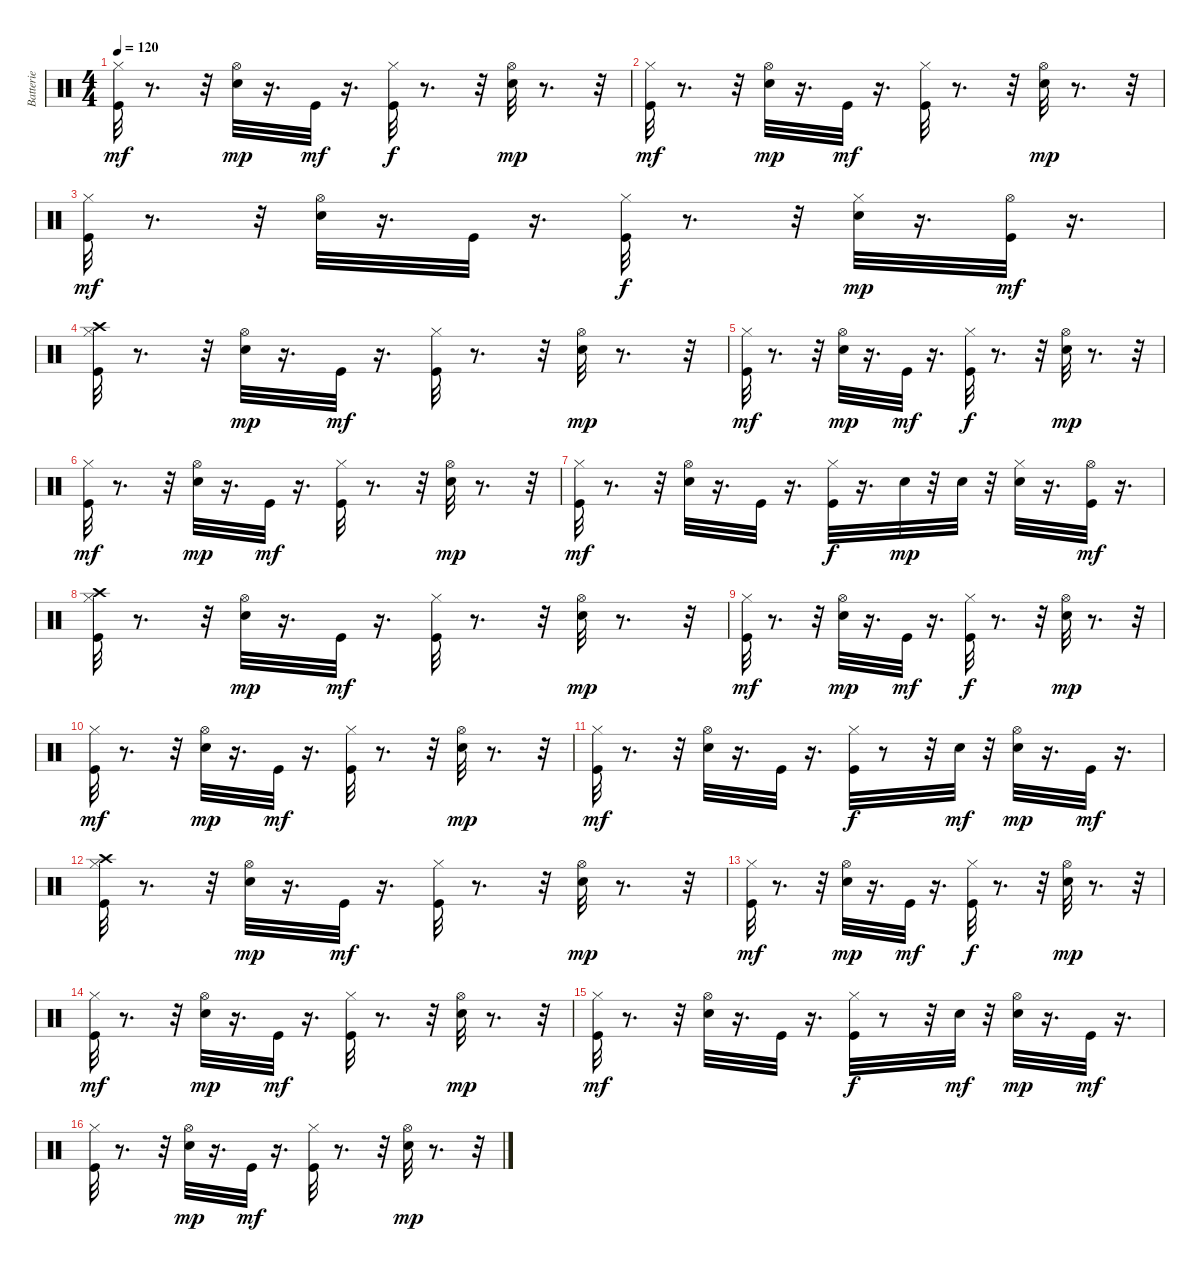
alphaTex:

\track ("Batterie" "Batterie") {instrument percussion}
\staff {score}
\articulation defaults
\ts (4 4)
\tempo 120
\clef neutral
\ks c
("Hi-Hat (closed)" "Kick (hit)").32{dy mf} r.8{d} r.32 ("Hi-Hat (open)" "Electric Snare (hit)").32{dy mp} r.16{d} "Kick (hit)".32{dy mf} r.16{d} ("Hi-Hat (closed)" "Kick (hit)").32{dy f} r.8{d} r.32 ("Hi-Hat (open)" "Electric Snare (hit)").32{dy mp} r.8{d} r.32 |
("Hi-Hat (closed)" "Kick (hit)").32{dy mf} r.8{d} r.32 ("Hi-Hat (open)" "Electric Snare (hit)").32{dy mp} r.16{d} "Kick (hit)".32{dy mf} r.16{d} ("Hi-Hat (closed)" "Kick (hit)").32 r.8{d} r.32 ("Hi-Hat (open)" "Electric Snare (hit)").32{dy mp} r.8{d} r.32 |
("Hi-Hat (closed)" "Kick (hit)").32{dy mf} r.8{d} r.32 ("Hi-Hat (open)" "Electric Snare (hit)").32 r.16{d} "Kick (hit)".32 r.16{d} ("Hi-Hat (closed)" "Kick (hit)").32{dy f} r.8{d} r.32 ("Hi-Hat (closed)" "Electric Snare (hit)").32{dy mp} r.16{d} ("Hi-Hat (open)" "Kick (hit)").32{dy mf} r.16{d} |
("Crash high (hit)" "Hi-Hat (closed)" "Kick (hit)").32 r.8{d} r.32 ("Hi-Hat (open)" "Electric Snare (hit)").32{dy mp} r.16{d} "Kick (hit)".32{dy mf} r.16{d} ("Hi-Hat (closed)" "Kick (hit)").32 r.8{d} r.32 ("Hi-Hat (open)" "Electric Snare (hit)").32{dy mp} r.8{d} r.32 |
("Hi-Hat (closed)" "Kick (hit)").32{dy mf} r.8{d} r.32 ("Hi-Hat (open)" "Electric Snare (hit)").32{dy mp} r.16{d} "Kick (hit)".32{dy mf} r.16{d} ("Hi-Hat (closed)" "Kick (hit)").32{dy f} r.8{d} r.32 ("Hi-Hat (open)" "Electric Snare (hit)").32{dy mp} r.8{d} r.32 |
("Hi-Hat (closed)" "Kick (hit)").32{dy mf} r.8{d} r.32 ("Hi-Hat (open)" "Electric Snare (hit)").32{dy mp} r.16{d} "Kick (hit)".32{dy mf} r.16{d} ("Hi-Hat (closed)" "Kick (hit)").32 r.8{d} r.32 ("Hi-Hat (open)" "Electric Snare (hit)").32{dy mp} r.8{d} r.32 |
("Hi-Hat (closed)" "Kick (hit)").32{dy mf} r.8{d} r.32 ("Hi-Hat (open)" "Electric Snare (hit)").32 r.16{d} "Kick (hit)".32 r.16{d} ("Hi-Hat (closed)" "Kick (hit)").32{dy f} r.16{d} "Electric Snare (hit)".32{dy mp} r.32 "Electric Snare (hit)".32 r.32 ("Hi-Hat (closed)" "Electric Snare (hit)").32 r.16{d} ("Hi-Hat (open)" "Kick (hit)").32{dy mf} r.16{d} |
("Crash high (hit)" "Hi-Hat (closed)" "Kick (hit)").32 r.8{d} r.32 ("Hi-Hat (open)" "Electric Snare (hit)").32{dy mp} r.16{d} "Kick (hit)".32{dy mf} r.16{d} ("Hi-Hat (closed)" "Kick (hit)").32 r.8{d} r.32 ("Hi-Hat (open)" "Electric Snare (hit)").32{dy mp} r.8{d} r.32 |
("Hi-Hat (closed)" "Kick (hit)").32{dy mf} r.8{d} r.32 ("Hi-Hat (open)" "Electric Snare (hit)").32{dy mp} r.16{d} "Kick (hit)".32{dy mf} r.16{d} ("Hi-Hat (closed)" "Kick (hit)").32{dy f} r.8{d} r.32 ("Hi-Hat (open)" "Electric Snare (hit)").32{dy mp} r.8{d} r.32 |
("Hi-Hat (closed)" "Kick (hit)").32{dy mf} r.8{d} r.32 ("Hi-Hat (open)" "Electric Snare (hit)").32{dy mp} r.16{d} "Kick (hit)".32{dy mf} r.16{d} ("Hi-Hat (closed)" "Kick (hit)").32 r.8{d} r.32 ("Hi-Hat (open)" "Electric Snare (hit)").32{dy mp} r.8{d} r.32 |
("Hi-Hat (closed)" "Kick (hit)").32{dy mf} r.8{d} r.32 ("Hi-Hat (open)" "Electric Snare (hit)").32 r.16{d} "Kick (hit)".32 r.16{d} ("Hi-Hat (closed)" "Kick (hit)").32{dy f} r.8 r.32 "Electric Snare (hit)".32{dy mf} r.32 ("Hi-Hat (open)" "Electric Snare (hit)").32{dy mp} r.16{d} "Kick (hit)".32{dy mf} r.16{d} |
("Crash high (hit)" "Hi-Hat (closed)" "Kick (hit)").32 r.8{d} r.32 ("Hi-Hat (open)" "Electric Snare (hit)").32{dy mp} r.16{d} "Kick (hit)".32{dy mf} r.16{d} ("Hi-Hat (closed)" "Kick (hit)").32 r.8{d} r.32 ("Hi-Hat (open)" "Electric Snare (hit)").32{dy mp} r.8{d} r.32 |
("Hi-Hat (closed)" "Kick (hit)").32{dy mf} r.8{d} r.32 ("Hi-Hat (open)" "Electric Snare (hit)").32{dy mp} r.16{d} "Kick (hit)".32{dy mf} r.16{d} ("Hi-Hat (closed)" "Kick (hit)").32{dy f} r.8{d} r.32 ("Hi-Hat (open)" "Electric Snare (hit)").32{dy mp} r.8{d} r.32 |
("Hi-Hat (closed)" "Kick (hit)").32{dy mf} r.8{d} r.32 ("Hi-Hat (open)" "Electric Snare (hit)").32{dy mp} r.16{d} "Kick (hit)".32{dy mf} r.16{d} ("Hi-Hat (closed)" "Kick (hit)").32 r.8{d} r.32 ("Hi-Hat (open)" "Electric Snare (hit)").32{dy mp} r.8{d} r.32 |
("Hi-Hat (closed)" "Kick (hit)").32{dy mf} r.8{d} r.32 ("Hi-Hat (open)" "Electric Snare (hit)").32 r.16{d} "Kick (hit)".32 r.16{d} ("Hi-Hat (closed)" "Kick (hit)").32{dy f} r.8 r.32 "Electric Snare (hit)".32{dy mf} r.32 ("Hi-Hat (open)" "Electric Snare (hit)").32{dy mp} r.16{d} "Kick (hit)".32{dy mf} r.16{d} |
("Hi-Hat (closed)" "Kick (hit)").32 r.8{d} r.32 ("Hi-Hat (open)" "Electric Snare (hit)").32{dy mp} r.16{d} "Kick (hit)".32{dy mf} r.16{d} ("Hi-Hat (closed)" "Kick (hit)").32 r.8{d} r.32 ("Hi-Hat (open)" "Electric Snare (hit)").32{dy mp} r.8{d} r.32
